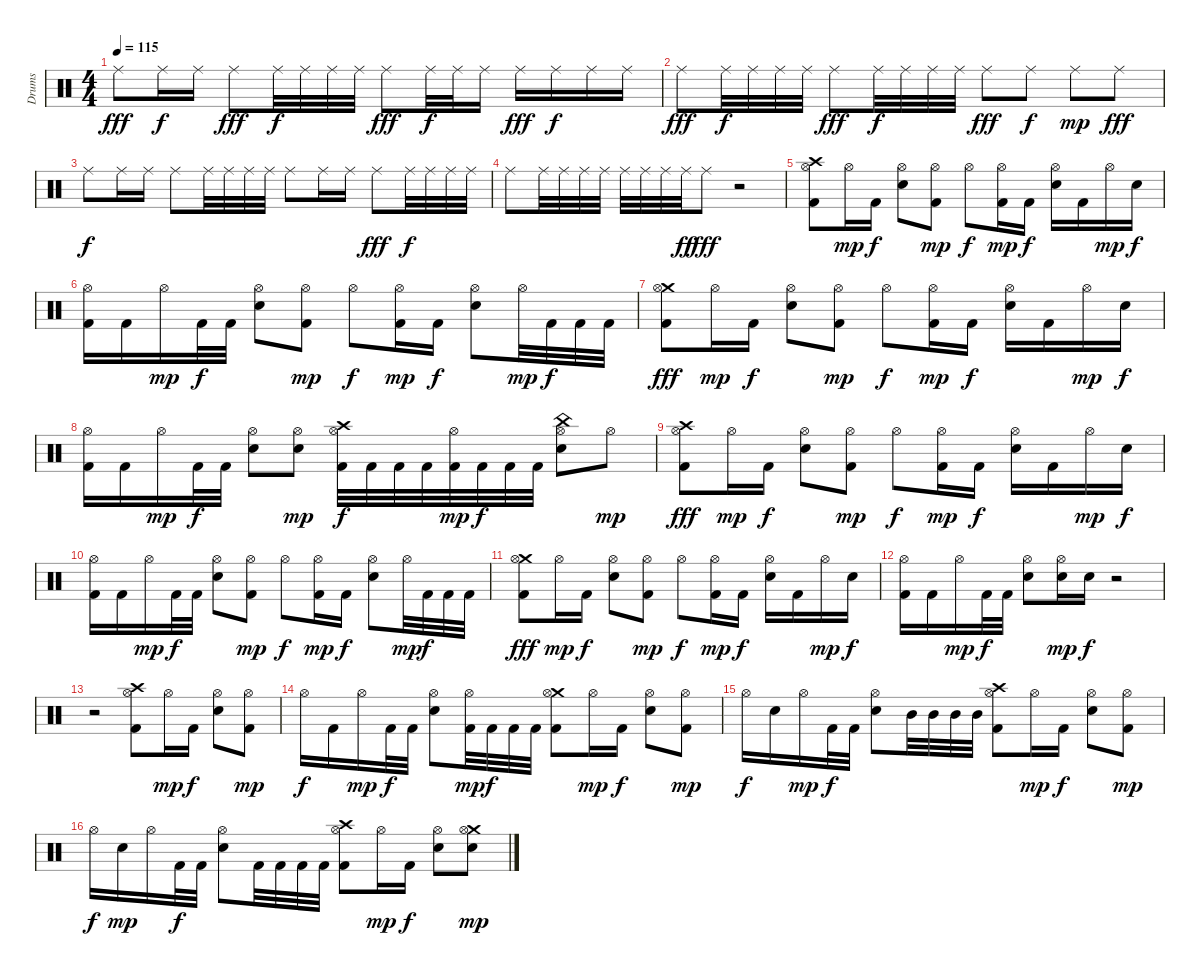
\track ("Drums" "Drums") {instrument percussion}
\staff {score}
\articulation defaults
\ts (4 4)
\tempo 115
\clef neutral
\ks c "Ride (middle)".8{dy fff} "Ride (middle)".16{dy f} "Ride (middle)".16 "Ride (middle)".8{dy fff} "Ride (middle)".32{dy f} "Ride (middle)".32 "Ride (middle)".32 "Ride (middle)".32 "Ride (middle)".8{dy fff} "Ride (middle)".32{dy f} "Ride (middle)".32 "Ride (middle)".16 "Ride (middle)".16{dy fff} "Ride (middle)".16{dy f} "Ride (middle)".16 "Ride (middle)".16
|
"Ride (middle)".8{dy fff} "Ride (middle)".32{dy f} "Ride (middle)".32 "Ride (middle)".32 "Ride (middle)".32 "Ride (middle)".8{dy fff} "Ride (middle)".32{dy f} "Ride (middle)".32 "Ride (middle)".32 "Ride (middle)".32 "Ride (middle)".8{dy fff} "Ride (middle)".8{dy f} "Ride (middle)".8{dy mp} "Ride (middle)".8{dy fff} |
"Ride (middle)".8{dy f} "Ride (middle)".16 "Ride (middle)".16 "Ride (middle)".8 "Ride (middle)".32 "Ride (middle)".32 "Ride (middle)".32 "Ride (middle)".32 "Ride (middle)".8 "Ride (middle)".16 "Ride (middle)".16 "Ride (middle)".8{dy fff} "Ride (middle)".32{dy f} "Ride (middle)".32 "Ride (middle)".32 "Ride (middle)".32 |
"Ride (middle)".8 "Ride (middle)".32 "Ride (middle)".32 "Ride (middle)".32 "Ride (middle)".32 "Ride (middle)".32 "Ride (middle)".32 "Ride (middle)".32 "Ride (middle)".32{dy ff} "Ride (middle)".8{dy fff} r.2 |
("Crash high (hit)" "Hi-Hat (open)" "Kick (hit) 2").8 "Hi-Hat (open)".16{dy mp} "Kick (hit) 2".16{dy f} ("Hi-Hat (open)" "Electric Snare (hit)").8 ("Hi-Hat (open)" "Kick (hit) 2").8{dy mp} "Hi-Hat (open)".8{dy f} ("Hi-Hat (open)" "Kick (hit) 2").16{dy mp} "Kick (hit) 2".16{dy f} ("Hi-Hat (open)" "Electric Snare (hit)").16 "Kick (hit) 2".16 "Hi-Hat (open)".16{dy mp} "Electric Snare (hit)".16{dy f} |
("Hi-Hat (open)" "Kick (hit) 2").16 "Kick (hit) 2".16 "Hi-Hat (open)".16{dy mp} "Kick (hit) 2".32{dy f} "Kick (hit) 2".32 ("Hi-Hat (open)" "Electric Snare (hit)").8 ("Hi-Hat (open)" "Kick (hit) 2").8{dy mp} "Hi-Hat (open)".8{dy f} ("Hi-Hat (open)" "Kick (hit) 2").16{dy mp} "Kick (hit) 2".16{dy f} ("Hi-Hat (open)" "Electric Snare (hit)").8 "Hi-Hat (open)".32{dy mp} "Kick (hit) 2".32{dy f} "Kick (hit) 2".32 "Kick (hit) 2".32 |
("Crash medium (hit)" "Hi-Hat (open)" "Kick (hit) 2").8{dy fff} "Hi-Hat (open)".16{dy mp} "Kick (hit) 2".16{dy f} ("Hi-Hat (open)" "Electric Snare (hit)").8 ("Hi-Hat (open)" "Kick (hit) 2").8{dy mp} "Hi-Hat (open)".8{dy f} ("Hi-Hat (open)" "Kick (hit) 2").16{dy mp} "Kick (hit) 2".16{dy f} ("Hi-Hat (open)" "Electric Snare (hit)").16 "Kick (hit) 2".16 "Hi-Hat (open)".16{dy mp} "Electric Snare (hit)".16{dy f} |
("Hi-Hat (open)" "Kick (hit) 2").16 "Kick (hit) 2".16 "Hi-Hat (open)".16{dy mp} "Kick (hit) 2".32{dy f} "Kick (hit) 2".32 ("Hi-Hat (open)" "Electric Snare (hit)").8 ("Hi-Hat (open)" "Electric Snare (hit)").8{dy mp} ("Crash high (hit)" "Hi-Hat (open)" "Kick (hit) 2").32{dy f} "Kick (hit) 2".32 "Kick (hit) 2".32 "Kick (hit) 2".32 ("Hi-Hat (open)" "Kick (hit) 2").32{dy mp} "Kick (hit) 2".32{dy f} "Kick (hit) 2".32 "Kick (hit) 2".32 ("China (hit)" "Hi-Hat (open)" "Electric Snare (hit)").8 "Hi-Hat (open)".8{dy mp} |
("Crash high (hit)" "Hi-Hat (open)" "Kick (hit) 2").8{dy fff} "Hi-Hat (open)".16{dy mp} "Kick (hit) 2".16{dy f} ("Hi-Hat (open)" "Electric Snare (hit)").8 ("Hi-Hat (open)" "Kick (hit) 2").8{dy mp} "Hi-Hat (open)".8{dy f} ("Hi-Hat (open)" "Kick (hit) 2").16{dy mp} "Kick (hit) 2".16{dy f} ("Hi-Hat (open)" "Electric Snare (hit)").16 "Kick (hit) 2".16 "Hi-Hat (open)".16{dy mp} "Electric Snare (hit)".16{dy f} |
("Hi-Hat (open)" "Kick (hit) 2").16 "Kick (hit) 2".16 "Hi-Hat (open)".16{dy mp} "Kick (hit) 2".32{dy f} "Kick (hit) 2".32 ("Hi-Hat (open)" "Electric Snare (hit)").8 ("Hi-Hat (open)" "Kick (hit) 2").8{dy mp} "Hi-Hat (open)".8{dy f} ("Hi-Hat (open)" "Kick (hit) 2").16{dy mp} "Kick (hit) 2".16{dy f} ("Hi-Hat (open)" "Electric Snare (hit)").8 "Hi-Hat (open)".32{dy mp} "Kick (hit) 2".32{dy f} "Kick (hit) 2".32 "Kick (hit) 2".32 |
("Crash medium (hit)" "Hi-Hat (open)" "Kick (hit) 2").8{dy fff} "Hi-Hat (open)".16{dy mp} "Kick (hit) 2".16{dy f} ("Hi-Hat (open)" "Electric Snare (hit)").8 ("Hi-Hat (open)" "Kick (hit) 2").8{dy mp} "Hi-Hat (open)".8{dy f} ("Hi-Hat (open)" "Kick (hit) 2").16{dy mp} "Kick (hit) 2".16{dy f} ("Hi-Hat (open)" "Electric Snare (hit)").16 "Kick (hit) 2".16 "Hi-Hat (open)".16{dy mp} "Electric Snare (hit)".16{dy f} |
("Hi-Hat (open)" "Kick (hit) 2").16 "Kick (hit) 2".16 "Hi-Hat (open)".16{dy mp} "Kick (hit) 2".32{dy f} "Kick (hit) 2".32 ("Hi-Hat (open)" "Electric Snare (hit)").8 ("Hi-Hat (open)" "Electric Snare (hit)").16{dy mp} "Electric Snare (hit)".16{dy f} r.2 |
r.2 ("Crash high (hit)" "Hi-Hat (open)" "Kick (hit) 2").8 "Hi-Hat (open)".16{dy mp} "Kick (hit) 2".16{dy f} ("Hi-Hat (open)" "Electric Snare (hit)").8 ("Hi-Hat (open)" "Kick (hit) 2").8{dy mp} |
"Hi-Hat (open)".16{dy f} "Kick (hit) 2".16 "Hi-Hat (open)".16{dy mp} "Kick (hit) 2".32{dy f} "Kick (hit) 2".32 ("Hi-Hat (open)" "Electric Snare (hit)").8 ("Hi-Hat (open)" "Kick (hit) 2").32{dy mp} "Kick (hit) 2".32{dy f} "Kick (hit) 2".32 "Kick (hit) 2".32 ("Crash medium (hit)" "Hi-Hat (open)" "Kick (hit) 2").8 "Hi-Hat (open)".16{dy mp} "Kick (hit) 2".16{dy f} ("Hi-Hat (open)" "Electric Snare (hit)").8 ("Hi-Hat (open)" "Kick (hit) 2").8{dy mp} |
"Hi-Hat (open)".16{dy f} "Electric Snare (hit)".16 "Hi-Hat (open)".16{dy mp} "Kick (hit) 2".32{dy f} "Kick (hit) 2".32 ("Hi-Hat (open)" "Electric Snare (hit)").8 "Mid Tom (hit)".32 "Mid Tom (hit)".32 "Mid Tom (hit)".32 "Mid Tom (hit)".32 ("Crash high (hit)" "Hi-Hat (open)" "Kick (hit) 2").8 "Hi-Hat (open)".16{dy mp} "Kick (hit) 2".16{dy f} ("Hi-Hat (open)" "Electric Snare (hit)").8 ("Hi-Hat (open)" "Kick (hit) 2").8{dy mp} |
"Hi-Hat (open)".16{dy f} "Electric Snare (hit)".16{dy mp} "Hi-Hat (open)".16 "Kick (hit) 2".32{dy f} "Kick (hit) 2".32 ("Hi-Hat (open)" "Electric Snare (hit)").8 "Kick (hit) 2".32 "Kick (hit) 2".32 "Kick (hit) 2".32 "Kick (hit) 2".32 ("Crash high (hit)" "Hi-Hat (open)" "Kick (hit) 2").8 "Hi-Hat (open)".16{dy mp} "Kick (hit) 2".16{dy f} ("Hi-Hat (open)" "Electric Snare (hit)").8 ("Crash medium (hit)" "Hi-Hat (open)" "Electric Snare (hit)").8{dy mp}
